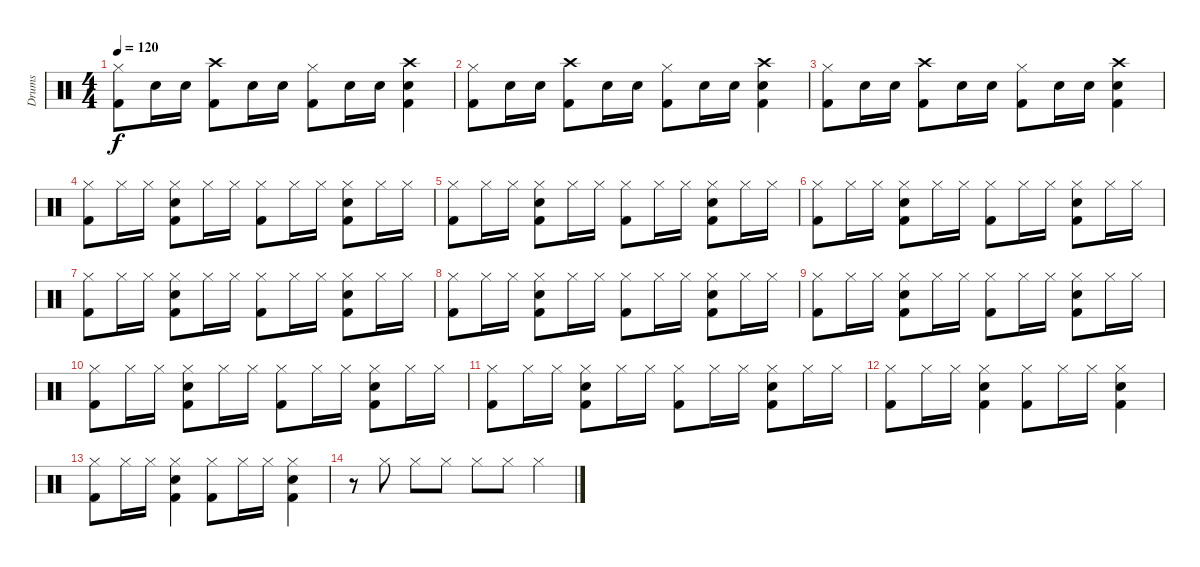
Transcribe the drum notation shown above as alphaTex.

\track ("Drums" "Drums") {instrument percussion}
\staff {score}
\articulation defaults
\ts (4 4)
\tempo 120
\clef neutral
\ks c
("Hi-Hat (closed)" "Kick (hit) 2").8{dy f} "Snare (hit) 2".16 "Snare (hit) 2".16 ("Crash high (hit)" "Kick (hit) 2").8 "Snare (hit) 2".16 "Snare (hit) 2".16 ("Hi-Hat (closed)" "Kick (hit) 2").8 "Snare (hit) 2".16 "Snare (hit) 2".16 ("Crash high (hit)" "Snare (hit) 2" "Kick (hit) 2").4 |
("Hi-Hat (closed)" "Kick (hit) 2").8 "Snare (hit) 2".16 "Snare (hit) 2".16 ("Crash high (hit)" "Kick (hit) 2").8 "Snare (hit) 2".16 "Snare (hit) 2".16 ("Hi-Hat (closed)" "Kick (hit) 2").8 "Snare (hit) 2".16 "Snare (hit) 2".16 ("Crash high (hit)" "Snare (hit) 2" "Kick (hit) 2").4 |
("Hi-Hat (closed)" "Kick (hit) 2").8 "Snare (hit) 2".16 "Snare (hit) 2".16 ("Crash high (hit)" "Kick (hit) 2").8 "Snare (hit) 2".16 "Snare (hit) 2".16 ("Hi-Hat (closed)" "Kick (hit) 2").8 "Snare (hit) 2".16 "Snare (hit) 2".16 ("Crash high (hit)" "Snare (hit) 2" "Kick (hit) 2").4 |
("Hi-Hat (closed)" "Kick (hit) 2").8 "Hi-Hat (closed)".16 "Hi-Hat (closed)".16 ("Hi-Hat (closed)" "Snare (hit) 2" "Kick (hit) 2").8 "Hi-Hat (closed)".16 "Hi-Hat (closed)".16 ("Hi-Hat (closed)" "Kick (hit) 2").8 "Hi-Hat (closed)".16 "Hi-Hat (closed)".16 ("Hi-Hat (closed)" "Snare (hit) 2" "Kick (hit) 2").8 "Hi-Hat (closed)".16 "Hi-Hat (closed)".16 |
("Hi-Hat (closed)" "Kick (hit) 2").8 "Hi-Hat (closed)".16 "Hi-Hat (closed)".16 ("Hi-Hat (closed)" "Snare (hit) 2" "Kick (hit) 2").8 "Hi-Hat (closed)".16 "Hi-Hat (closed)".16 ("Hi-Hat (closed)" "Kick (hit) 2").8 "Hi-Hat (closed)".16 "Hi-Hat (closed)".16 ("Hi-Hat (closed)" "Snare (hit) 2" "Kick (hit) 2").8 "Hi-Hat (closed)".16 "Hi-Hat (closed)".16 |
("Hi-Hat (closed)" "Kick (hit) 2").8 "Hi-Hat (closed)".16 "Hi-Hat (closed)".16 ("Hi-Hat (closed)" "Snare (hit) 2" "Kick (hit) 2").8 "Hi-Hat (closed)".16 "Hi-Hat (closed)".16 ("Hi-Hat (closed)" "Kick (hit) 2").8 "Hi-Hat (closed)".16 "Hi-Hat (closed)".16 ("Hi-Hat (closed)" "Snare (hit) 2" "Kick (hit) 2").8 "Hi-Hat (closed)".16 "Hi-Hat (closed)".16 |
("Hi-Hat (closed)" "Kick (hit) 2").8 "Hi-Hat (closed)".16 "Hi-Hat (closed)".16 ("Hi-Hat (closed)" "Snare (hit) 2" "Kick (hit) 2").8 "Hi-Hat (closed)".16 "Hi-Hat (closed)".16 ("Hi-Hat (closed)" "Kick (hit) 2").8 "Hi-Hat (closed)".16 "Hi-Hat (closed)".16 ("Hi-Hat (closed)" "Snare (hit) 2" "Kick (hit) 2").8 "Hi-Hat (closed)".16 "Hi-Hat (closed)".16 |
("Hi-Hat (closed)" "Kick (hit) 2").8 "Hi-Hat (closed)".16 "Hi-Hat (closed)".16 ("Hi-Hat (closed)" "Snare (hit) 2" "Kick (hit) 2").8 "Hi-Hat (closed)".16 "Hi-Hat (closed)".16 ("Hi-Hat (closed)" "Kick (hit) 2").8 "Hi-Hat (closed)".16 "Hi-Hat (closed)".16 ("Hi-Hat (closed)" "Snare (hit) 2" "Kick (hit) 2").8 "Hi-Hat (closed)".16 "Hi-Hat (closed)".16 |
("Hi-Hat (closed)" "Kick (hit) 2").8 "Hi-Hat (closed)".16 "Hi-Hat (closed)".16 ("Hi-Hat (closed)" "Snare (hit) 2" "Kick (hit) 2").8 "Hi-Hat (closed)".16 "Hi-Hat (closed)".16 ("Hi-Hat (closed)" "Kick (hit) 2").8 "Hi-Hat (closed)".16 "Hi-Hat (closed)".16 ("Hi-Hat (closed)" "Snare (hit) 2" "Kick (hit) 2").8 "Hi-Hat (closed)".16 "Hi-Hat (closed)".16 |
("Hi-Hat (closed)" "Kick (hit) 2").8 "Hi-Hat (closed)".16 "Hi-Hat (closed)".16 ("Hi-Hat (closed)" "Snare (hit) 2" "Kick (hit) 2").8 "Hi-Hat (closed)".16 "Hi-Hat (closed)".16 ("Hi-Hat (closed)" "Kick (hit) 2").8 "Hi-Hat (closed)".16 "Hi-Hat (closed)".16 ("Hi-Hat (closed)" "Snare (hit) 2" "Kick (hit) 2").8 "Hi-Hat (closed)".16 "Hi-Hat (closed)".16 |
("Hi-Hat (closed)" "Kick (hit) 2").8 "Hi-Hat (closed)".16 "Hi-Hat (closed)".16 ("Hi-Hat (closed)" "Snare (hit) 2" "Kick (hit) 2").8 "Hi-Hat (closed)".16 "Hi-Hat (closed)".16 ("Hi-Hat (closed)" "Kick (hit) 2").8 "Hi-Hat (closed)".16 "Hi-Hat (closed)".16 ("Hi-Hat (closed)" "Snare (hit) 2" "Kick (hit) 2").8 "Hi-Hat (closed)".16 "Hi-Hat (closed)".16 |
("Hi-Hat (closed)" "Kick (hit) 2").8 "Hi-Hat (closed)".16 "Hi-Hat (closed)".16 ("Hi-Hat (closed)" "Snare (hit) 2" "Kick (hit) 2").4 ("Hi-Hat (closed)" "Kick (hit) 2").8 "Hi-Hat (closed)".16 "Hi-Hat (closed)".16 ("Hi-Hat (closed)" "Snare (hit) 2" "Kick (hit) 2").4 |
("Hi-Hat (closed)" "Kick (hit) 2").8 "Hi-Hat (closed)".16 "Hi-Hat (closed)".16 ("Hi-Hat (closed)" "Snare (hit) 2" "Kick (hit) 2").4 ("Hi-Hat (closed)" "Kick (hit) 2").8 "Hi-Hat (closed)".16 "Hi-Hat (closed)".16 ("Hi-Hat (closed)" "Snare (hit) 2" "Kick (hit) 2").4 |
r.8 "Hi-Hat (closed)".8 "Hi-Hat (closed)".8 "Hi-Hat (closed)".8 "Hi-Hat (closed)".8 "Hi-Hat (closed)".8 "Hi-Hat (closed)".4
